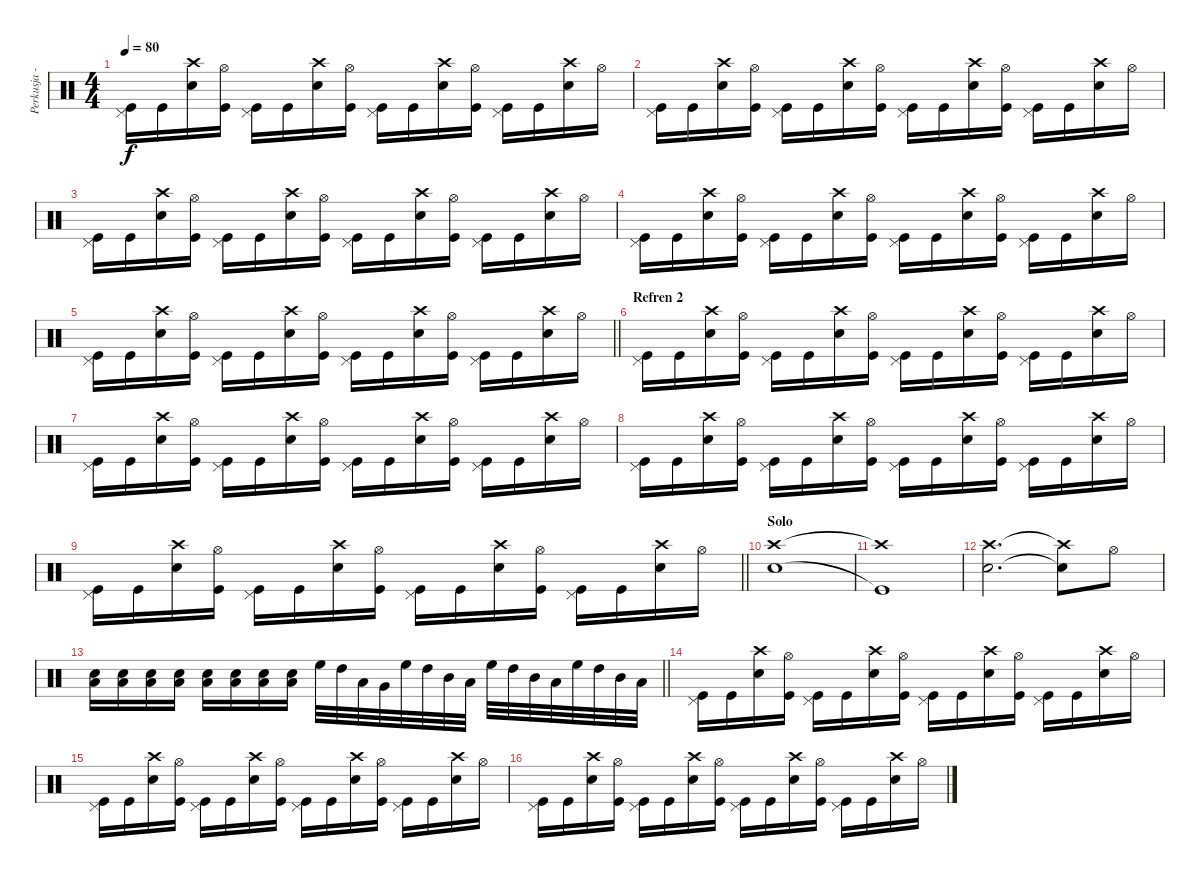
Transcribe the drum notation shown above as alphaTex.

\track ("Perkusja - Krzyzyk" "Perkusja -") {instrument percussion}
\staff {score}
\articulation defaults
\ts (4 4)
\tempo 80
\clef neutral
\ks c
("Pedal Hi-Hat (hit)" "Kick (hit)").16{dy f} "Kick (hit)".16 ("Crash high (hit)" "Snare (hit) 2").16 ("Hi-Hat (open)" "Kick (hit)").16 ("Pedal Hi-Hat (hit)" "Kick (hit)").16 "Kick (hit)".16 ("Crash high (hit)" "Snare (hit) 2").16 ("Hi-Hat (open)" "Kick (hit)").16 ("Pedal Hi-Hat (hit)" "Kick (hit)").16 "Kick (hit)".16 ("Crash high (hit)" "Snare (hit) 2").16 ("Hi-Hat (open)" "Kick (hit)").16 ("Pedal Hi-Hat (hit)" "Kick (hit)").16 "Kick (hit)".16 ("Crash high (hit)" "Snare (hit) 2").16 "Hi-Hat (open)".16 |
("Pedal Hi-Hat (hit)" "Kick (hit)").16 "Kick (hit)".16 ("Crash high (hit)" "Snare (hit) 2").16 ("Hi-Hat (open)" "Kick (hit)").16 ("Pedal Hi-Hat (hit)" "Kick (hit)").16 "Kick (hit)".16 ("Crash high (hit)" "Snare (hit) 2").16 ("Hi-Hat (open)" "Kick (hit)").16 ("Pedal Hi-Hat (hit)" "Kick (hit)").16 "Kick (hit)".16 ("Crash high (hit)" "Snare (hit) 2").16 ("Hi-Hat (open)" "Kick (hit)").16 ("Pedal Hi-Hat (hit)" "Kick (hit)").16 "Kick (hit)".16 ("Crash high (hit)" "Snare (hit) 2").16 "Hi-Hat (open)".16 |
("Pedal Hi-Hat (hit)" "Kick (hit)").16 "Kick (hit)".16 ("Crash high (hit)" "Snare (hit) 2").16 ("Hi-Hat (open)" "Kick (hit)").16 ("Pedal Hi-Hat (hit)" "Kick (hit)").16 "Kick (hit)".16 ("Crash high (hit)" "Snare (hit) 2").16 ("Hi-Hat (open)" "Kick (hit)").16 ("Pedal Hi-Hat (hit)" "Kick (hit)").16 "Kick (hit)".16 ("Crash high (hit)" "Snare (hit) 2").16 ("Hi-Hat (open)" "Kick (hit)").16 ("Pedal Hi-Hat (hit)" "Kick (hit)").16 "Kick (hit)".16 ("Crash high (hit)" "Snare (hit) 2").16 "Hi-Hat (open)".16 |
("Pedal Hi-Hat (hit)" "Kick (hit)").16 "Kick (hit)".16 ("Crash high (hit)" "Snare (hit) 2").16 ("Hi-Hat (open)" "Kick (hit)").16 ("Pedal Hi-Hat (hit)" "Kick (hit)").16 "Kick (hit)".16 ("Crash high (hit)" "Snare (hit) 2").16 ("Hi-Hat (open)" "Kick (hit)").16 ("Pedal Hi-Hat (hit)" "Kick (hit)").16 "Kick (hit)".16 ("Crash high (hit)" "Snare (hit) 2").16 ("Hi-Hat (open)" "Kick (hit)").16 ("Pedal Hi-Hat (hit)" "Kick (hit)").16 "Kick (hit)".16 ("Crash high (hit)" "Snare (hit) 2").16 "Hi-Hat (open)".16 |
\barLineRight lightlight
("Pedal Hi-Hat (hit)" "Kick (hit)").16 "Kick (hit)".16 ("Crash high (hit)" "Snare (hit) 2").16 ("Hi-Hat (open)" "Kick (hit)").16 ("Pedal Hi-Hat (hit)" "Kick (hit)").16 "Kick (hit)".16 ("Crash high (hit)" "Snare (hit) 2").16 ("Hi-Hat (open)" "Kick (hit)").16 ("Pedal Hi-Hat (hit)" "Kick (hit)").16 "Kick (hit)".16 ("Crash high (hit)" "Snare (hit) 2").16 ("Hi-Hat (open)" "Kick (hit)").16 ("Pedal Hi-Hat (hit)" "Kick (hit)").16 "Kick (hit)".16 ("Crash high (hit)" "Snare (hit) 2").16 "Hi-Hat (open)".16 |
\section ("" "Refren 2")
("Pedal Hi-Hat (hit)" "Kick (hit)").16 "Kick (hit)".16 ("Crash high (hit)" "Snare (hit) 2").16 ("Hi-Hat (open)" "Kick (hit)").16 ("Pedal Hi-Hat (hit)" "Kick (hit)").16 "Kick (hit)".16 ("Crash high (hit)" "Snare (hit) 2").16 ("Hi-Hat (open)" "Kick (hit)").16 ("Pedal Hi-Hat (hit)" "Kick (hit)").16 "Kick (hit)".16 ("Crash high (hit)" "Snare (hit) 2").16 ("Hi-Hat (open)" "Kick (hit)").16 ("Pedal Hi-Hat (hit)" "Kick (hit)").16 "Kick (hit)".16 ("Crash high (hit)" "Snare (hit) 2").16 "Hi-Hat (open)".16 |
("Pedal Hi-Hat (hit)" "Kick (hit)").16 "Kick (hit)".16 ("Crash high (hit)" "Snare (hit) 2").16 ("Hi-Hat (open)" "Kick (hit)").16 ("Pedal Hi-Hat (hit)" "Kick (hit)").16 "Kick (hit)".16 ("Crash high (hit)" "Snare (hit) 2").16 ("Hi-Hat (open)" "Kick (hit)").16 ("Pedal Hi-Hat (hit)" "Kick (hit)").16 "Kick (hit)".16 ("Crash high (hit)" "Snare (hit) 2").16 ("Hi-Hat (open)" "Kick (hit)").16 ("Pedal Hi-Hat (hit)" "Kick (hit)").16 "Kick (hit)".16 ("Crash high (hit)" "Snare (hit) 2").16 "Hi-Hat (open)".16 |
("Pedal Hi-Hat (hit)" "Kick (hit)").16 "Kick (hit)".16 ("Crash high (hit)" "Snare (hit) 2").16 ("Hi-Hat (open)" "Kick (hit)").16 ("Pedal Hi-Hat (hit)" "Kick (hit)").16 "Kick (hit)".16 ("Crash high (hit)" "Snare (hit) 2").16 ("Hi-Hat (open)" "Kick (hit)").16 ("Pedal Hi-Hat (hit)" "Kick (hit)").16 "Kick (hit)".16 ("Crash high (hit)" "Snare (hit) 2").16 ("Hi-Hat (open)" "Kick (hit)").16 ("Pedal Hi-Hat (hit)" "Kick (hit)").16 "Kick (hit)".16 ("Crash high (hit)" "Snare (hit) 2").16 "Hi-Hat (open)".16 |
\barLineRight lightlight
("Pedal Hi-Hat (hit)" "Kick (hit)").16 "Kick (hit)".16 ("Crash high (hit)" "Snare (hit) 2").16 ("Hi-Hat (open)" "Kick (hit)").16 ("Pedal Hi-Hat (hit)" "Kick (hit)").16 "Kick (hit)".16 ("Crash high (hit)" "Snare (hit) 2").16 ("Hi-Hat (open)" "Kick (hit)").16 ("Pedal Hi-Hat (hit)" "Kick (hit)").16 "Kick (hit)".16 ("Crash high (hit)" "Snare (hit) 2").16 ("Hi-Hat (open)" "Kick (hit)").16 ("Pedal Hi-Hat (hit)" "Kick (hit)").16 "Kick (hit)".16 ("Crash high (hit)" "Snare (hit) 2").16 "Hi-Hat (open)".16 |
\section ("" "Solo")
("Crash high (hit)" "Snare (hit) 2").1 |
("Crash high (hit)"{t} "Kick (hit)"{t}).1 |
("Crash high (hit)" "Snare (hit) 2").2{d} ("Crash high (hit)"{t} "Snare (hit) 2"{t}).8 "Hi-Hat (open)".8 |
\barLineRight lightlight
("Snare (hit) 2" "Low Tom (hit)").16 ("Snare (hit) 2" "Low Tom (hit)").16 ("Snare (hit) 2" "Low Tom (hit)").16 ("Snare (hit) 2" "Low Tom (hit)").16 ("Snare (hit) 2" "Low Tom (hit)").16 ("Snare (hit) 2" "Low Tom (hit)").16 ("Snare (hit) 2" "Low Tom (hit)").16 ("Snare (hit) 2" "Low Tom (hit)").16 "High Floor Tom (hit)".32 "High Tom (hit)".32 "Low Tom (hit)".32 "Very Low Tom (hit)".32 "High Floor Tom (hit)".32 "High Tom (hit)".32 "Mid Tom (hit)".32 "Low Tom (hit)".32 "High Floor Tom (hit)".32 "High Tom (hit)".32 "Mid Tom (hit)".32 "Low Tom (hit)".32 "High Floor Tom (hit)".32 "High Tom (hit)".32 "Mid Tom (hit)".32 "Low Tom (hit)".32 |
("Pedal Hi-Hat (hit)" "Kick (hit)").16 "Kick (hit)".16 ("Crash high (hit)" "Snare (hit) 2").16 ("Hi-Hat (open)" "Kick (hit)").16 ("Pedal Hi-Hat (hit)" "Kick (hit)").16 "Kick (hit)".16 ("Crash high (hit)" "Snare (hit) 2").16 ("Hi-Hat (open)" "Kick (hit)").16 ("Pedal Hi-Hat (hit)" "Kick (hit)").16 "Kick (hit)".16 ("Crash high (hit)" "Snare (hit) 2").16 ("Hi-Hat (open)" "Kick (hit)").16 ("Pedal Hi-Hat (hit)" "Kick (hit)").16 "Kick (hit)".16 ("Crash high (hit)" "Snare (hit) 2").16 "Hi-Hat (open)".16 |
("Pedal Hi-Hat (hit)" "Kick (hit)").16 "Kick (hit)".16 ("Crash high (hit)" "Snare (hit) 2").16 ("Hi-Hat (open)" "Kick (hit)").16 ("Pedal Hi-Hat (hit)" "Kick (hit)").16 "Kick (hit)".16 ("Crash high (hit)" "Snare (hit) 2").16 ("Hi-Hat (open)" "Kick (hit)").16 ("Pedal Hi-Hat (hit)" "Kick (hit)").16 "Kick (hit)".16 ("Crash high (hit)" "Snare (hit) 2").16 ("Hi-Hat (open)" "Kick (hit)").16 ("Pedal Hi-Hat (hit)" "Kick (hit)").16 "Kick (hit)".16 ("Crash high (hit)" "Snare (hit) 2").16 "Hi-Hat (open)".16 |
("Pedal Hi-Hat (hit)" "Kick (hit)").16 "Kick (hit)".16 ("Crash high (hit)" "Snare (hit) 2").16 ("Hi-Hat (open)" "Kick (hit)").16 ("Pedal Hi-Hat (hit)" "Kick (hit)").16 "Kick (hit)".16 ("Crash high (hit)" "Snare (hit) 2").16 ("Hi-Hat (open)" "Kick (hit)").16 ("Pedal Hi-Hat (hit)" "Kick (hit)").16 "Kick (hit)".16 ("Crash high (hit)" "Snare (hit) 2").16 ("Hi-Hat (open)" "Kick (hit)").16 ("Pedal Hi-Hat (hit)" "Kick (hit)").16 "Kick (hit)".16 ("Crash high (hit)" "Snare (hit) 2").16 "Hi-Hat (open)".16
